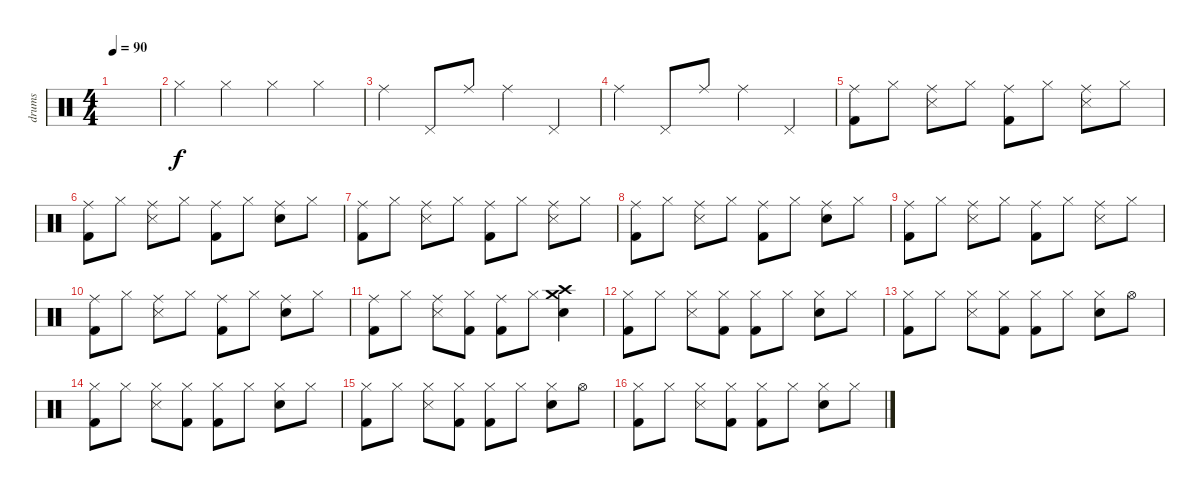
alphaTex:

\track ("drums" "drums") {instrument percussion}
\staff {score}
\articulation defaults
\ts (4 4)
\tempo 90
\clef neutral
\ks c
|
"Hi-Hat (closed)".4 "Hi-Hat (closed)".4 "Hi-Hat (closed)".4 "Hi-Hat (closed)".4 |
"Ride (middle)".4 "Pedal Hi-Hat (hit)".8 "Ride (middle)".8 "Ride (middle)".4 "Pedal Hi-Hat (hit)".4 |
"Ride (middle)".4 "Pedal Hi-Hat (hit)".8 "Ride (middle)".8 "Ride (middle)".4 "Pedal Hi-Hat (hit)".4 |
("Ride (middle)" "Kick (hit) 2").8 "Hi-Hat (closed)".8 ("Ride (middle)" "Snare (side stick) 3").8 "Hi-Hat (closed)".8 ("Ride (middle)" "Kick (hit) 2").8 "Hi-Hat (closed)".8 ("Ride (middle)" "Snare (side stick) 3").8 "Hi-Hat (closed)".8 |
("Ride (middle)" "Kick (hit) 2").8 "Hi-Hat (closed)".8 ("Ride (middle)" "Snare (side stick) 3").8 "Hi-Hat (closed)".8 ("Ride (middle)" "Kick (hit) 2").8 "Hi-Hat (closed)".8 ("Ride (middle)" "Snare (hit) 2").8 "Hi-Hat (closed)".8 |
("Ride (middle)" "Kick (hit) 2").8 "Hi-Hat (closed)".8 ("Ride (middle)" "Snare (side stick) 3").8 "Hi-Hat (closed)".8 ("Ride (middle)" "Kick (hit) 2").8 "Hi-Hat (closed)".8 ("Ride (middle)" "Snare (side stick) 3").8 "Hi-Hat (closed)".8 |
("Ride (middle)" "Kick (hit) 2").8 "Hi-Hat (closed)".8 ("Ride (middle)" "Snare (side stick) 3").8 "Hi-Hat (closed)".8 ("Ride (middle)" "Kick (hit) 2").8 "Hi-Hat (closed)".8 ("Ride (middle)" "Snare (hit) 2").8 "Hi-Hat (closed)".8 |
("Ride (middle)" "Kick (hit) 2").8 "Hi-Hat (closed)".8 ("Ride (middle)" "Snare (side stick) 3").8 "Hi-Hat (closed)".8 ("Ride (middle)" "Kick (hit) 2").8 "Hi-Hat (closed)".8 ("Ride (middle)" "Snare (side stick) 3").8 "Hi-Hat (closed)".8 |
("Ride (middle)" "Kick (hit) 2").8 "Hi-Hat (closed)".8 ("Ride (middle)" "Snare (side stick) 3").8 "Hi-Hat (closed)".8 ("Ride (middle)" "Kick (hit) 2").8 "Hi-Hat (closed)".8 ("Ride (middle)" "Snare (hit) 2").8 "Hi-Hat (closed)".8 |
("Ride (middle)" "Kick (hit) 2").8 "Hi-Hat (closed)".8 ("Ride (middle)" "Snare (side stick) 3").8 ("Hi-Hat (closed)" "Kick (hit) 2").8 ("Ride (middle)" "Kick (hit) 2").8 "Hi-Hat (closed)".8 ("Crash medium (hit)" "Crash high (hit)" "Snare (hit) 2").4 |
("Hi-Hat (closed)" "Kick (hit) 2").8 "Hi-Hat (closed)".8 ("Hi-Hat (closed)" "Snare (side stick) 3").8 ("Hi-Hat (closed)" "Kick (hit) 2").8 ("Hi-Hat (closed)" "Kick (hit) 2").8 "Hi-Hat (closed)".8 ("Hi-Hat (closed)" "Snare (hit) 2").8 "Hi-Hat (closed)".8 |
("Hi-Hat (closed)" "Kick (hit) 2").8 "Hi-Hat (closed)".8 ("Hi-Hat (closed)" "Snare (side stick) 3").8 ("Hi-Hat (closed)" "Kick (hit) 2").8 ("Hi-Hat (closed)" "Kick (hit) 2").8 "Hi-Hat (closed)".8 ("Hi-Hat (closed)" "Snare (hit) 2").8 "Hi-Hat (open)".8 |
("Hi-Hat (closed)" "Kick (hit) 2").8 "Hi-Hat (closed)".8 ("Hi-Hat (closed)" "Snare (side stick) 3").8 ("Hi-Hat (closed)" "Kick (hit) 2").8 ("Hi-Hat (closed)" "Kick (hit) 2").8 "Hi-Hat (closed)".8 ("Hi-Hat (closed)" "Snare (hit) 2").8 "Hi-Hat (closed)".8 |
("Hi-Hat (closed)" "Kick (hit) 2").8 "Hi-Hat (closed)".8 ("Hi-Hat (closed)" "Snare (side stick) 3").8 ("Hi-Hat (closed)" "Kick (hit) 2").8 ("Hi-Hat (closed)" "Kick (hit) 2").8 "Hi-Hat (closed)".8 ("Hi-Hat (closed)" "Snare (hit) 2").8 "Hi-Hat (open)".8 |
("Hi-Hat (closed)" "Kick (hit) 2").8 "Hi-Hat (closed)".8 ("Hi-Hat (closed)" "Snare (side stick) 3").8 ("Hi-Hat (closed)" "Kick (hit) 2").8 ("Hi-Hat (closed)" "Kick (hit) 2").8 "Hi-Hat (closed)".8 ("Hi-Hat (closed)" "Snare (hit) 2").8 "Hi-Hat (closed)".8
